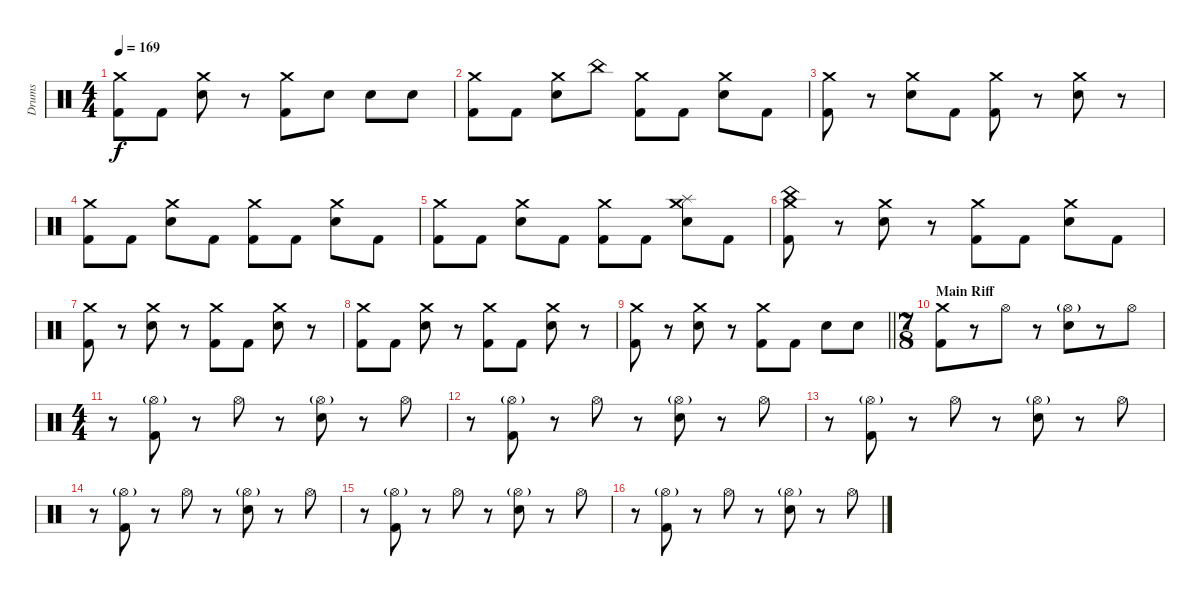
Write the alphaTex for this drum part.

\track ("Drums" "Drums") {instrument percussion}
\staff {score}
\articulation defaults
\ts (4 4)
\tempo 169
\clef neutral
\ks c
("Crash medium (hit)" "Kick (hit) 2").8{dy f} "Kick (hit) 2".8 ("Crash medium (hit)" "Electric Snare (hit)").8 r.8 ("Crash medium (hit)" "Kick (hit) 2").8 "Electric Snare (hit)".8 "Electric Snare (hit)".8 "Electric Snare (hit)".8 |
("Crash medium (hit)" "Kick (hit) 2").8 "Kick (hit) 2".8 ("Crash medium (hit)" "Electric Snare (hit)").8 "China (hit)".8 ("Crash medium (hit)" "Kick (hit) 2").8 "Kick (hit) 2".8 ("Crash medium (hit)" "Electric Snare (hit)").8 "Kick (hit) 2".8 |
("Crash medium (hit)" "Kick (hit) 2").8 r.8 ("Crash medium (hit)" "Electric Snare (hit)").8 "Kick (hit) 2".8 ("Crash medium (hit)" "Kick (hit) 2").8 r.8 ("Crash medium (hit)" "Electric Snare (hit)").8 r.8 |
("Crash medium (hit)" "Kick (hit) 2").8 "Kick (hit) 2".8 ("Crash medium (hit)" "Electric Snare (hit)").8 "Kick (hit) 2".8 ("Crash medium (hit)" "Kick (hit) 2").8 "Kick (hit) 2".8 ("Crash medium (hit)" "Electric Snare (hit)").8 "Kick (hit) 2".8 |
("Crash medium (hit)" "Kick (hit) 2").8 "Kick (hit) 2".8 ("Crash medium (hit)" "Electric Snare (hit)").8 "Kick (hit) 2".8 ("Crash medium (hit)" "Kick (hit) 2").8 "Kick (hit) 2".8 ("Crash medium (hit)" "Splash (hit)" "Electric Snare (hit)").8 "Kick (hit) 2".8 |
("Crash medium (hit)" "China (hit)" "Kick (hit) 2").8 r.8 ("Crash medium (hit)" "Electric Snare (hit)").8 r.8 ("Crash medium (hit)" "Kick (hit) 2").8 "Kick (hit) 2".8 ("Crash medium (hit)" "Electric Snare (hit)").8 "Kick (hit) 2".8 |
("Crash medium (hit)" "Kick (hit) 2").8 r.8 ("Crash medium (hit)" "Electric Snare (hit)").8 r.8 ("Crash medium (hit)" "Kick (hit) 2").8 "Kick (hit) 2".8 ("Crash medium (hit)" "Electric Snare (hit)").8 r.8 |
("Crash medium (hit)" "Kick (hit) 2").8 "Kick (hit) 2".8 ("Crash medium (hit)" "Electric Snare (hit)").8 r.8 ("Crash medium (hit)" "Kick (hit) 2").8 "Kick (hit) 2".8 ("Crash medium (hit)" "Electric Snare (hit)").8 r.8 |
\barLineRight lightlight
("Crash medium (hit)" "Kick (hit) 2").8 r.8 ("Crash medium (hit)" "Electric Snare (hit)").8 r.8 ("Crash medium (hit)" "Kick (hit) 2").8 "Kick (hit) 2".8 "Electric Snare (hit)".8 "Electric Snare (hit)".8 |
\ts (7 8)
\section ("" "Main Riff")
("Crash medium (hit)" "Kick (hit) 2").8 r.8 "Hi-Hat (open)".8 r.8 ("Hi-Hat (open)"{g} "Electric Snare (hit)").8 r.8 "Hi-Hat (open)".8 |
\ts (4 4)
r.8 ("Hi-Hat (open)"{g} "Kick (hit) 2").8 r.8 "Hi-Hat (open)".8 r.8 ("Hi-Hat (open)"{g} "Electric Snare (hit)").8 r.8 "Hi-Hat (open)".8 |
r.8 ("Hi-Hat (open)"{g} "Kick (hit) 2").8 r.8 "Hi-Hat (open)".8 r.8 ("Hi-Hat (open)"{g} "Electric Snare (hit)").8 r.8 "Hi-Hat (open)".8 |
r.8 ("Hi-Hat (open)"{g} "Kick (hit) 2").8 r.8 "Hi-Hat (open)".8 r.8 ("Hi-Hat (open)"{g} "Electric Snare (hit)").8 r.8 "Hi-Hat (open)".8 |
r.8 ("Hi-Hat (open)"{g} "Kick (hit) 2").8 r.8 "Hi-Hat (open)".8 r.8 ("Hi-Hat (open)"{g} "Electric Snare (hit)").8 r.8 "Hi-Hat (open)".8 |
r.8 ("Hi-Hat (open)"{g} "Kick (hit) 2").8 r.8 "Hi-Hat (open)".8 r.8 ("Hi-Hat (open)"{g} "Electric Snare (hit)").8 r.8 "Hi-Hat (open)".8 |
r.8 ("Hi-Hat (open)"{g} "Kick (hit) 2").8 r.8 "Hi-Hat (open)".8 r.8 ("Hi-Hat (open)"{g} "Electric Snare (hit)").8 r.8 "Hi-Hat (open)".8
